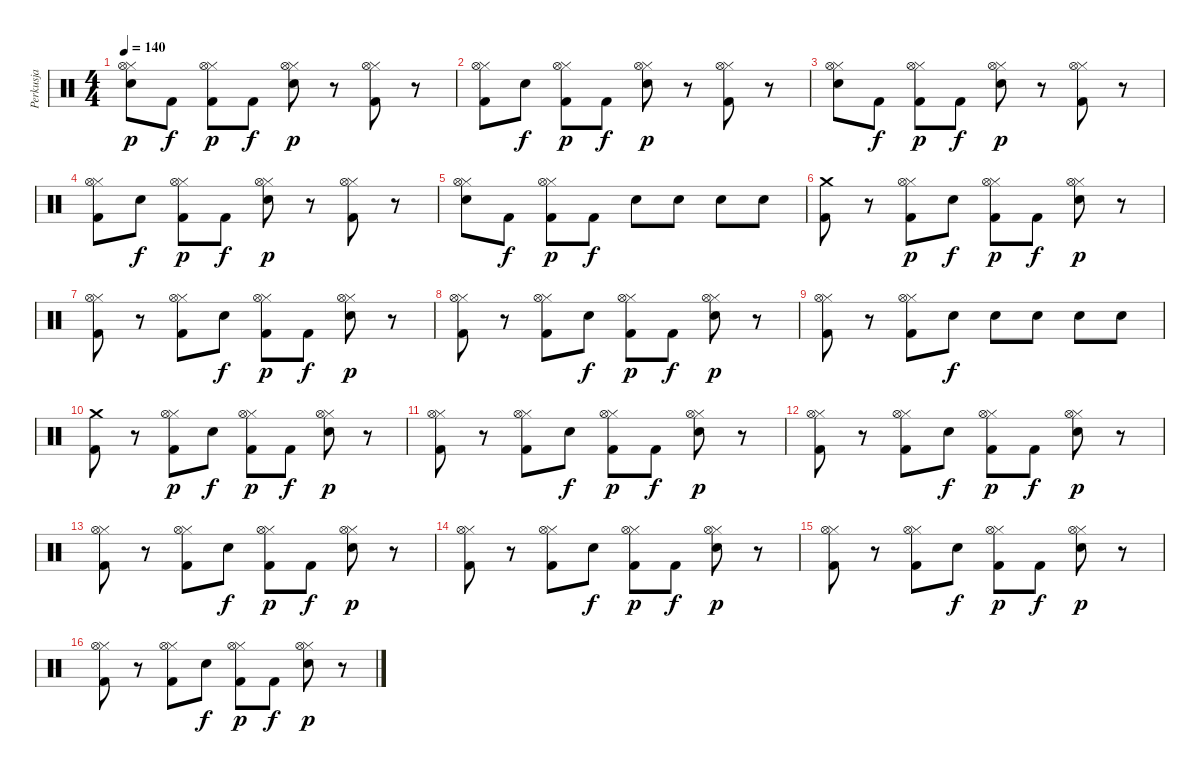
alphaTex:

\track ("Perkusja" "Perkusja") {instrument percussion}
\staff {score}
\articulation defaults
\ts (4 4)
\tempo 140
\clef neutral
\ks c
("Electric Snare (hit)" "Hi-Hat (closed)" "Hi-Hat (open)").8{dy p} "Kick (hit) 2".8{dy f} ("Kick (hit) 2" "Hi-Hat (closed)" "Hi-Hat (open)").8{dy p} "Kick (hit) 2".8{dy f} ("Electric Snare (hit)" "Hi-Hat (closed)" "Hi-Hat (open)").8{dy p} r.8 ("Kick (hit) 2" "Hi-Hat (closed)" "Hi-Hat (open)").8 r.8 |
("Kick (hit) 2" "Hi-Hat (closed)" "Hi-Hat (open)").8 "Electric Snare (hit)".8{dy f} ("Kick (hit) 2" "Hi-Hat (closed)" "Hi-Hat (open)").8{dy p} "Kick (hit) 2".8{dy f} ("Electric Snare (hit)" "Hi-Hat (closed)" "Hi-Hat (open)").8{dy p} r.8 ("Kick (hit) 2" "Hi-Hat (closed)" "Hi-Hat (open)").8 r.8 |
("Electric Snare (hit)" "Hi-Hat (closed)" "Hi-Hat (open)").8 "Kick (hit) 2".8{dy f} ("Kick (hit) 2" "Hi-Hat (closed)" "Hi-Hat (open)").8{dy p} "Kick (hit) 2".8{dy f} ("Electric Snare (hit)" "Hi-Hat (closed)" "Hi-Hat (open)").8{dy p} r.8 ("Kick (hit) 2" "Hi-Hat (closed)" "Hi-Hat (open)").8 r.8 |
("Kick (hit) 2" "Hi-Hat (closed)" "Hi-Hat (open)").8 "Electric Snare (hit)".8{dy f} ("Kick (hit) 2" "Hi-Hat (closed)" "Hi-Hat (open)").8{dy p} "Kick (hit) 2".8{dy f} ("Electric Snare (hit)" "Hi-Hat (closed)" "Hi-Hat (open)").8{dy p} r.8 ("Kick (hit) 2" "Hi-Hat (closed)" "Hi-Hat (open)").8 r.8 |
("Electric Snare (hit)" "Hi-Hat (closed)" "Hi-Hat (open)").8 "Kick (hit) 2".8{dy f} ("Kick (hit) 2" "Hi-Hat (closed)" "Hi-Hat (open)").8{dy p} "Kick (hit) 2".8{dy f} "Electric Snare (hit)".8 "Electric Snare (hit)".8 "Electric Snare (hit)".8 "Electric Snare (hit)".8 |
("Kick (hit) 2" "Crash medium (hit)").8 r.8 ("Kick (hit) 2" "Hi-Hat (closed)" "Hi-Hat (open)").8{dy p} "Electric Snare (hit)".8{dy f} ("Kick (hit) 2" "Hi-Hat (closed)" "Hi-Hat (open)").8{dy p} "Kick (hit) 2".8{dy f} ("Electric Snare (hit)" "Hi-Hat (closed)" "Hi-Hat (open)").8{dy p} r.8 |
("Kick (hit) 2" "Hi-Hat (closed)" "Hi-Hat (open)").8 r.8 ("Kick (hit) 2" "Hi-Hat (closed)" "Hi-Hat (open)").8 "Electric Snare (hit)".8{dy f} ("Kick (hit) 2" "Hi-Hat (closed)" "Hi-Hat (open)").8{dy p} "Kick (hit) 2".8{dy f} ("Electric Snare (hit)" "Hi-Hat (closed)" "Hi-Hat (open)").8{dy p} r.8 |
("Kick (hit) 2" "Hi-Hat (closed)" "Hi-Hat (open)").8 r.8 ("Kick (hit) 2" "Hi-Hat (closed)" "Hi-Hat (open)").8 "Electric Snare (hit)".8{dy f} ("Kick (hit) 2" "Hi-Hat (closed)" "Hi-Hat (open)").8{dy p} "Kick (hit) 2".8{dy f} ("Electric Snare (hit)" "Hi-Hat (closed)" "Hi-Hat (open)").8{dy p} r.8 |
("Kick (hit) 2" "Hi-Hat (closed)" "Hi-Hat (open)").8 r.8 ("Kick (hit) 2" "Hi-Hat (closed)" "Hi-Hat (open)").8 "Electric Snare (hit)".8{dy f} "Electric Snare (hit)".8 "Electric Snare (hit)".8 "Electric Snare (hit)".8 "Electric Snare (hit)".8 |
("Kick (hit) 2" "Crash medium (hit)").8 r.8 ("Kick (hit) 2" "Hi-Hat (closed)" "Hi-Hat (open)").8{dy p} "Electric Snare (hit)".8{dy f} ("Kick (hit) 2" "Hi-Hat (closed)" "Hi-Hat (open)").8{dy p} "Kick (hit) 2".8{dy f} ("Electric Snare (hit)" "Hi-Hat (closed)" "Hi-Hat (open)").8{dy p} r.8 |
("Kick (hit) 2" "Hi-Hat (closed)" "Hi-Hat (open)").8 r.8 ("Kick (hit) 2" "Hi-Hat (closed)" "Hi-Hat (open)").8 "Electric Snare (hit)".8{dy f} ("Kick (hit) 2" "Hi-Hat (closed)" "Hi-Hat (open)").8{dy p} "Kick (hit) 2".8{dy f} ("Electric Snare (hit)" "Hi-Hat (closed)" "Hi-Hat (open)").8{dy p} r.8 |
("Kick (hit) 2" "Hi-Hat (closed)" "Hi-Hat (open)").8 r.8 ("Kick (hit) 2" "Hi-Hat (closed)" "Hi-Hat (open)").8 "Electric Snare (hit)".8{dy f} ("Kick (hit) 2" "Hi-Hat (closed)" "Hi-Hat (open)").8{dy p} "Kick (hit) 2".8{dy f} ("Electric Snare (hit)" "Hi-Hat (closed)" "Hi-Hat (open)").8{dy p} r.8 |
("Kick (hit) 2" "Hi-Hat (closed)" "Hi-Hat (open)").8 r.8 ("Kick (hit) 2" "Hi-Hat (closed)" "Hi-Hat (open)").8 "Electric Snare (hit)".8{dy f} ("Kick (hit) 2" "Hi-Hat (closed)" "Hi-Hat (open)").8{dy p} "Kick (hit) 2".8{dy f} ("Electric Snare (hit)" "Hi-Hat (closed)" "Hi-Hat (open)").8{dy p} r.8 |
("Kick (hit) 2" "Hi-Hat (closed)" "Hi-Hat (open)").8 r.8 ("Kick (hit) 2" "Hi-Hat (closed)" "Hi-Hat (open)").8 "Electric Snare (hit)".8{dy f} ("Kick (hit) 2" "Hi-Hat (closed)" "Hi-Hat (open)").8{dy p} "Kick (hit) 2".8{dy f} ("Electric Snare (hit)" "Hi-Hat (closed)" "Hi-Hat (open)").8{dy p} r.8 |
("Kick (hit) 2" "Hi-Hat (closed)" "Hi-Hat (open)").8 r.8 ("Kick (hit) 2" "Hi-Hat (closed)" "Hi-Hat (open)").8 "Electric Snare (hit)".8{dy f} ("Kick (hit) 2" "Hi-Hat (closed)" "Hi-Hat (open)").8{dy p} "Kick (hit) 2".8{dy f} ("Electric Snare (hit)" "Hi-Hat (closed)" "Hi-Hat (open)").8{dy p} r.8 |
("Kick (hit) 2" "Hi-Hat (closed)" "Hi-Hat (open)").8 r.8 ("Kick (hit) 2" "Hi-Hat (closed)" "Hi-Hat (open)").8 "Electric Snare (hit)".8{dy f} ("Kick (hit) 2" "Hi-Hat (closed)" "Hi-Hat (open)").8{dy p} "Kick (hit) 2".8{dy f} ("Electric Snare (hit)" "Hi-Hat (closed)" "Hi-Hat (open)").8{dy p} r.8
